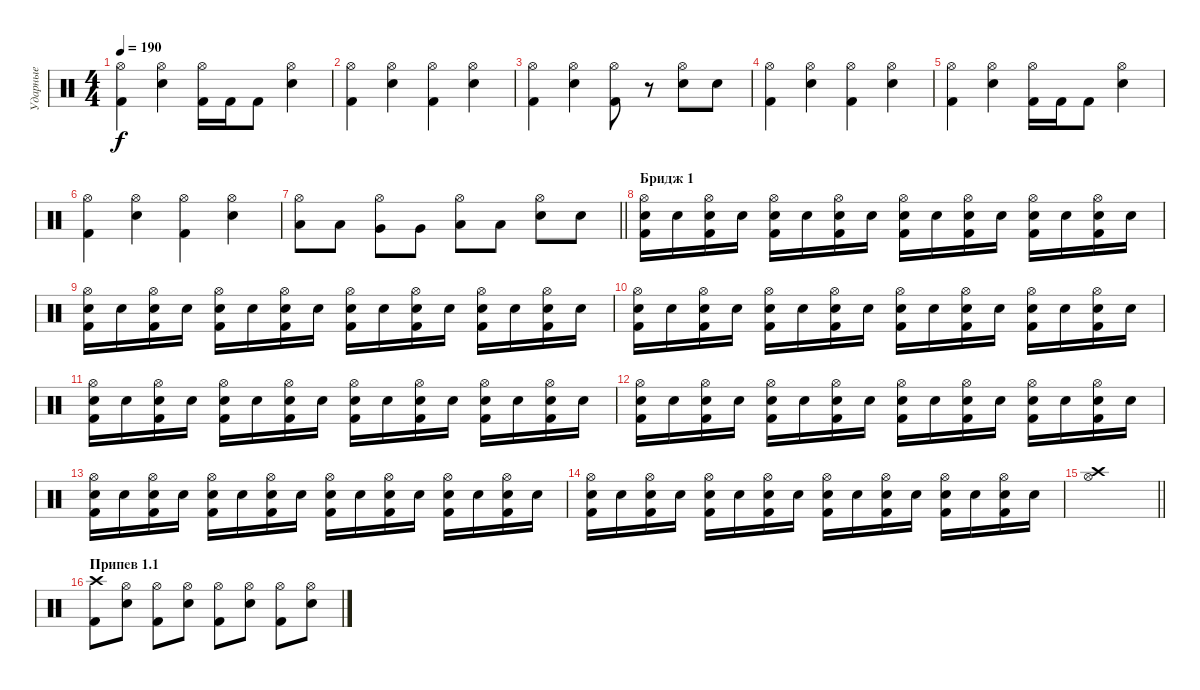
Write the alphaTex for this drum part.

\track ("Ударные" "Ударные") {instrument percussion}
\staff {score}
\articulation defaults
\ts (4 4)
\tempo 190
\clef neutral
\ks c
("Hi-Hat (open)" "Kick (hit) 2").4{dy f} ("Hi-Hat (open)" "Electric Snare (hit)").4 ("Hi-Hat (open)" "Kick (hit) 2").16 "Kick (hit) 2".16 "Kick (hit) 2".8 ("Hi-Hat (open)" "Electric Snare (hit)").4 |
("Hi-Hat (open)" "Kick (hit) 2").4 ("Hi-Hat (open)" "Electric Snare (hit)").4 ("Hi-Hat (open)" "Kick (hit) 2").4 ("Hi-Hat (open)" "Electric Snare (hit)").4 |
("Hi-Hat (open)" "Kick (hit) 2").4 ("Hi-Hat (open)" "Electric Snare (hit)").4 ("Hi-Hat (open)" "Kick (hit) 2").8 r.8 ("Hi-Hat (open)" "Electric Snare (hit)").8 "Snare (hit) 2".8 |
("Hi-Hat (open)" "Kick (hit) 2").4 ("Hi-Hat (open)" "Electric Snare (hit)").4 ("Hi-Hat (open)" "Kick (hit) 2").4 ("Hi-Hat (open)" "Electric Snare (hit)").4 |
("Hi-Hat (open)" "Kick (hit) 2").4 ("Hi-Hat (open)" "Electric Snare (hit)").4 ("Hi-Hat (open)" "Kick (hit) 2").16 "Kick (hit) 2".16 "Kick (hit) 2".8 ("Hi-Hat (open)" "Electric Snare (hit)").4 |
("Hi-Hat (open)" "Kick (hit) 2").4 ("Hi-Hat (open)" "Electric Snare (hit)").4 ("Hi-Hat (open)" "Kick (hit) 2").4 ("Hi-Hat (open)" "Electric Snare (hit)").4 |
\barLineRight lightlight
("Hi-Hat (open)" "Low Tom (hit)").8 "Low Tom (hit)".8 ("Hi-Hat (open)" "Very Low Tom (hit)").8 "Very Low Tom (hit)".8 ("Hi-Hat (open)" "Low Floor Tom (hit)").8 "Low Floor Tom (hit)".8 ("Hi-Hat (open)" "Electric Snare (hit)").8 "Electric Snare (hit)".8 |
\section ("" "Бридж 1")
("Electric Snare (hit)" "Hi-Hat (open)" "Kick (hit) 2").16 "Snare (hit) 2".16 ("Electric Snare (hit)" "Hi-Hat (open)" "Kick (hit) 2").16 "Snare (hit) 2".16 ("Electric Snare (hit)" "Hi-Hat (open)" "Kick (hit) 2").16 "Snare (hit) 2".16 ("Electric Snare (hit)" "Hi-Hat (open)" "Kick (hit) 2").16 "Snare (hit) 2".16 ("Electric Snare (hit)" "Hi-Hat (open)" "Kick (hit) 2").16 "Snare (hit) 2".16 ("Electric Snare (hit)" "Hi-Hat (open)" "Kick (hit) 2").16 "Snare (hit) 2".16 ("Electric Snare (hit)" "Hi-Hat (open)" "Kick (hit) 2").16 "Snare (hit) 2".16 ("Electric Snare (hit)" "Hi-Hat (open)" "Kick (hit) 2").16 "Snare (hit) 2".16 |
("Electric Snare (hit)" "Hi-Hat (open)" "Kick (hit) 2").16 "Snare (hit) 2".16 ("Electric Snare (hit)" "Hi-Hat (open)" "Kick (hit) 2").16 "Snare (hit) 2".16 ("Electric Snare (hit)" "Hi-Hat (open)" "Kick (hit) 2").16 "Snare (hit) 2".16 ("Electric Snare (hit)" "Hi-Hat (open)" "Kick (hit) 2").16 "Snare (hit) 2".16 ("Electric Snare (hit)" "Hi-Hat (open)" "Kick (hit) 2").16 "Snare (hit) 2".16 ("Electric Snare (hit)" "Hi-Hat (open)" "Kick (hit) 2").16 "Snare (hit) 2".16 ("Electric Snare (hit)" "Hi-Hat (open)" "Kick (hit) 2").16 "Snare (hit) 2".16 ("Electric Snare (hit)" "Hi-Hat (open)" "Kick (hit) 2").16 "Snare (hit) 2".16 |
("Electric Snare (hit)" "Hi-Hat (open)" "Kick (hit) 2").16 "Snare (hit) 2".16 ("Electric Snare (hit)" "Hi-Hat (open)" "Kick (hit) 2").16 "Snare (hit) 2".16 ("Electric Snare (hit)" "Hi-Hat (open)" "Kick (hit) 2").16 "Snare (hit) 2".16 ("Electric Snare (hit)" "Hi-Hat (open)" "Kick (hit) 2").16 "Snare (hit) 2".16 ("Electric Snare (hit)" "Hi-Hat (open)" "Kick (hit) 2").16 "Snare (hit) 2".16 ("Electric Snare (hit)" "Hi-Hat (open)" "Kick (hit) 2").16 "Snare (hit) 2".16 ("Electric Snare (hit)" "Hi-Hat (open)" "Kick (hit) 2").16 "Snare (hit) 2".16 ("Electric Snare (hit)" "Hi-Hat (open)" "Kick (hit) 2").16 "Snare (hit) 2".16 |
("Electric Snare (hit)" "Hi-Hat (open)" "Kick (hit) 2").16 "Snare (hit) 2".16 ("Electric Snare (hit)" "Hi-Hat (open)" "Kick (hit) 2").16 "Snare (hit) 2".16 ("Electric Snare (hit)" "Hi-Hat (open)" "Kick (hit) 2").16 "Snare (hit) 2".16 ("Electric Snare (hit)" "Hi-Hat (open)" "Kick (hit) 2").16 "Snare (hit) 2".16 ("Electric Snare (hit)" "Hi-Hat (open)" "Kick (hit) 2").16 "Snare (hit) 2".16 ("Electric Snare (hit)" "Hi-Hat (open)" "Kick (hit) 2").16 "Snare (hit) 2".16 ("Electric Snare (hit)" "Hi-Hat (open)" "Kick (hit) 2").16 "Snare (hit) 2".16 ("Electric Snare (hit)" "Hi-Hat (open)" "Kick (hit) 2").16 "Snare (hit) 2".16 |
("Electric Snare (hit)" "Hi-Hat (open)" "Kick (hit) 2").16 "Snare (hit) 2".16 ("Electric Snare (hit)" "Hi-Hat (open)" "Kick (hit) 2").16 "Snare (hit) 2".16 ("Electric Snare (hit)" "Hi-Hat (open)" "Kick (hit) 2").16 "Snare (hit) 2".16 ("Electric Snare (hit)" "Hi-Hat (open)" "Kick (hit) 2").16 "Snare (hit) 2".16 ("Electric Snare (hit)" "Hi-Hat (open)" "Kick (hit) 2").16 "Snare (hit) 2".16 ("Electric Snare (hit)" "Hi-Hat (open)" "Kick (hit) 2").16 "Snare (hit) 2".16 ("Electric Snare (hit)" "Hi-Hat (open)" "Kick (hit) 2").16 "Snare (hit) 2".16 ("Electric Snare (hit)" "Hi-Hat (open)" "Kick (hit) 2").16 "Snare (hit) 2".16 |
("Electric Snare (hit)" "Hi-Hat (open)" "Kick (hit) 2").16 "Snare (hit) 2".16 ("Electric Snare (hit)" "Hi-Hat (open)" "Kick (hit) 2").16 "Snare (hit) 2".16 ("Electric Snare (hit)" "Hi-Hat (open)" "Kick (hit) 2").16 "Snare (hit) 2".16 ("Electric Snare (hit)" "Hi-Hat (open)" "Kick (hit) 2").16 "Snare (hit) 2".16 ("Electric Snare (hit)" "Hi-Hat (open)" "Kick (hit) 2").16 "Snare (hit) 2".16 ("Electric Snare (hit)" "Hi-Hat (open)" "Kick (hit) 2").16 "Snare (hit) 2".16 ("Electric Snare (hit)" "Hi-Hat (open)" "Kick (hit) 2").16 "Snare (hit) 2".16 ("Electric Snare (hit)" "Hi-Hat (open)" "Kick (hit) 2").16 "Snare (hit) 2".16 |
("Electric Snare (hit)" "Hi-Hat (open)" "Kick (hit) 2").16 "Snare (hit) 2".16 ("Electric Snare (hit)" "Hi-Hat (open)" "Kick (hit) 2").16 "Snare (hit) 2".16 ("Electric Snare (hit)" "Hi-Hat (open)" "Kick (hit) 2").16 "Snare (hit) 2".16 ("Electric Snare (hit)" "Hi-Hat (open)" "Kick (hit) 2").16 "Snare (hit) 2".16 ("Electric Snare (hit)" "Hi-Hat (open)" "Kick (hit) 2").16 "Snare (hit) 2".16 ("Electric Snare (hit)" "Hi-Hat (open)" "Kick (hit) 2").16 "Snare (hit) 2".16 ("Electric Snare (hit)" "Hi-Hat (open)" "Kick (hit) 2").16 "Snare (hit) 2".16 ("Electric Snare (hit)" "Hi-Hat (open)" "Kick (hit) 2").16 "Snare (hit) 2".16 |
\barLineRight lightlight
("Crash high (hit)" "Hi-Hat (open)").1 |
\section ("" "Припев 1.1")
("Crash high (hit)" "Kick (hit) 2").8 ("Hi-Hat (open)" "Snare (hit) 2").8 ("Hi-Hat (open)" "Kick (hit) 2").8 ("Hi-Hat (open)" "Snare (hit) 2").8 ("Hi-Hat (open)" "Kick (hit) 2").8 ("Hi-Hat (open)" "Snare (hit) 2").8 ("Hi-Hat (open)" "Kick (hit) 2").8 ("Hi-Hat (open)" "Snare (hit) 2").8
